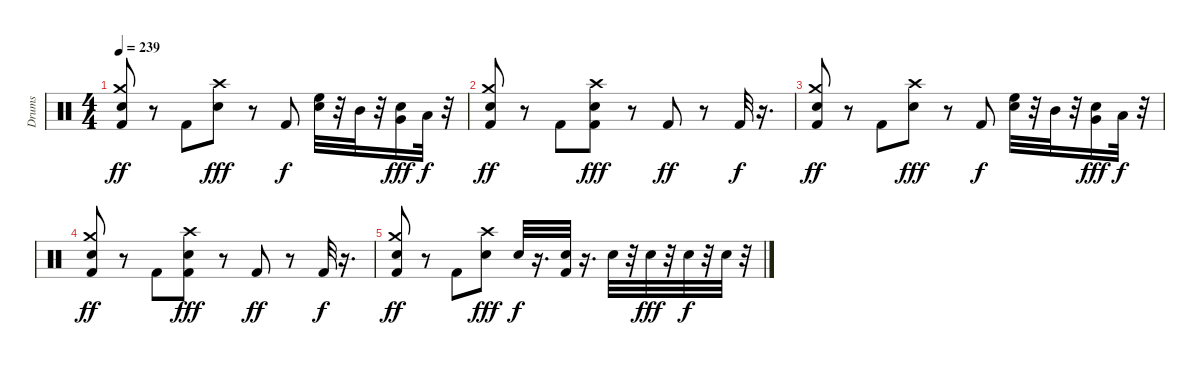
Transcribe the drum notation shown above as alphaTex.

\track ("Drums" "Drums") {instrument percussion}
\staff {score}
\articulation defaults
\ts (4 4)
\tempo 239
\clef neutral
\ks c
("Kick (hit) 2" "Crash medium (hit)" "Snare (hit) 2").8{dy ff} r.8 "Kick (hit) 2".8 ("Snare (hit) 2" "Crash high (hit)").8{dy fff} r.8 "Kick (hit) 2".8{dy f} ("High Floor Tom (hit)" "Snare (hit) 2").32 r.32 "Mid Tom (hit)".32 r.32 ("Snare (hit) 2" "Very Low Tom (hit)").16{dy fff} "Low Floor Tom (hit)".32{dy f} r.32 |
("Kick (hit) 2" "Crash medium (hit)" "Snare (hit) 2").8{dy ff} r.8 "Kick (hit) 2".8 ("Kick (hit) 2" "Snare (hit) 2" "Crash high (hit)").8{dy fff} r.8 "Kick (hit) 2".8{dy ff} r.8 "Kick (hit) 2".32{dy f} r.16{d} |
("Kick (hit) 2" "Crash medium (hit)" "Snare (hit) 2").8{dy ff} r.8 "Kick (hit) 2".8 ("Snare (hit) 2" "Crash high (hit)").8{dy fff} r.8 "Kick (hit) 2".8{dy f} ("High Floor Tom (hit)" "Snare (hit) 2").32 r.32 "Mid Tom (hit)".32 r.32 ("Snare (hit) 2" "Very Low Tom (hit)").16{dy fff} "Low Floor Tom (hit)".32{dy f} r.32 |
("Kick (hit) 2" "Crash medium (hit)" "Snare (hit) 2").8{dy ff} r.8 "Kick (hit) 2".8 ("Crash high (hit)" "Kick (hit) 2" "Snare (hit) 2").8{dy fff} r.8 "Kick (hit) 2".8{dy ff} r.8 "Kick (hit) 2".32{dy f} r.16{d} |
("Kick (hit) 2" "Crash medium (hit)" "Snare (hit) 2").8{dy ff} r.8 "Kick (hit) 2".8 ("Snare (hit) 2" "Crash high (hit)").8{dy fff} "Snare (hit) 2".32{dy f} r.16{d} ("Kick (hit) 2" "Snare (hit) 2").32 r.16{d} "Snare (hit) 2".32 r.32 "Snare (hit) 2".32{dy fff} r.32 "Snare (hit) 2".32{dy f} r.32 "Electric Snare (hit)".32 r.32
